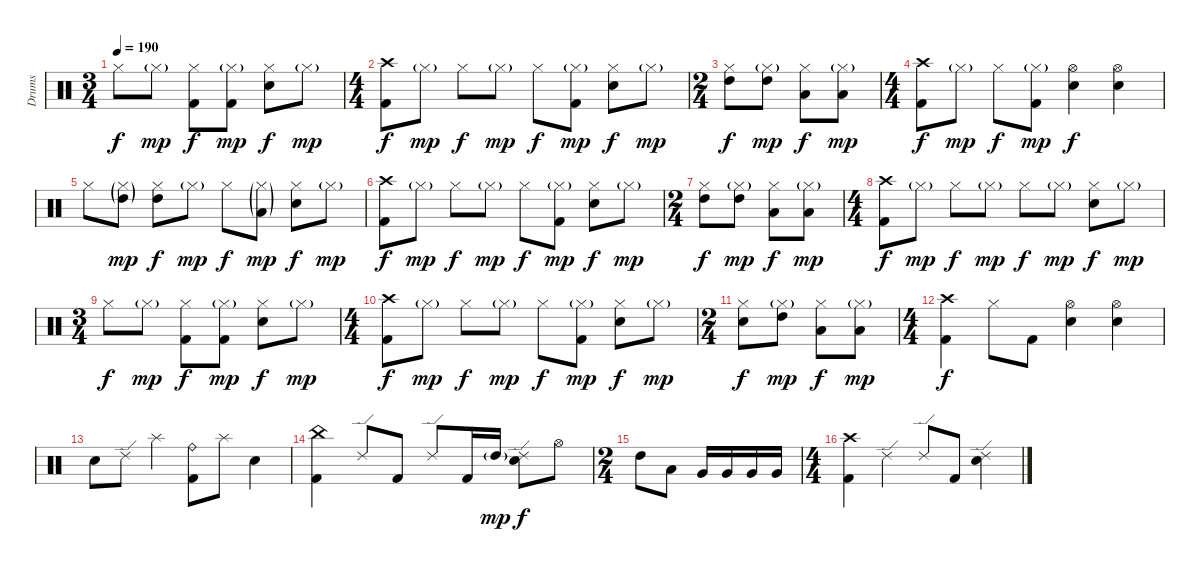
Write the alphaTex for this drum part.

\track ("Drums" "Drums") {instrument percussion}
\staff {score}
\articulation defaults
\ts (3 4)
\tempo 190
\clef neutral
\ks c "Hi-Hat (closed)".8{dy f} "Hi-Hat (closed)"{g}.8{dy mp}
("Hi-Hat (closed)" "Kick (hit) 2").8{dy f} ("Hi-Hat (closed)"{g} "Kick (hit) 2").8{dy mp} ("Hi-Hat (closed)" "Snare (hit) 2").8{dy f} "Hi-Hat (closed)"{g}.8{dy mp} |
\ts (4 4)
("Crash high (hit)" "Kick (hit) 2").8{dy f} "Hi-Hat (closed)"{g}.8{dy mp} "Hi-Hat (closed)".8{dy f} "Hi-Hat (closed)"{g}.8{dy mp} "Hi-Hat (closed)".8{dy f} ("Hi-Hat (closed)"{g} "Kick (hit) 2").8{dy mp} ("Hi-Hat (closed)" "Snare (hit) 2").8{dy f} "Hi-Hat (closed)"{g}.8{dy mp} |
\ts (2 4)
("Hi-Hat (closed)" "High Tom (hit)").8{dy f} ("Hi-Hat (closed)"{g} "High Tom (hit)").8{dy mp} ("Hi-Hat (closed)" "Low Tom (hit)").8{dy f} ("Hi-Hat (closed)"{g} "Low Tom (hit)").8{dy mp} |
\ts (4 4)
("Crash high (hit)" "Kick (hit) 2").8{dy f} "Hi-Hat (closed)"{g}.8{dy mp} "Hi-Hat (closed)".8{dy f} ("Hi-Hat (closed)"{g} "Kick (hit) 2").8{dy mp} ("Hi-Hat (open)" "Snare (hit) 2").4{dy f} ("Hi-Hat (open)" "Snare (hit) 2").4 |
"Hi-Hat (closed)".8 ("Hi-Hat (closed)"{g} "High Tom (hit)"{g}).8{dy mp} ("Hi-Hat (closed)" "High Tom (hit)").8{dy f} "Hi-Hat (closed)"{g}.8{dy mp} "Hi-Hat (closed)".8{dy f} ("Hi-Hat (closed)"{g} "Low Tom (hit)"{g}).8{dy mp} ("Hi-Hat (closed)" "Snare (hit) 2").8{dy f} "Hi-Hat (closed)"{g}.8{dy mp} |
("Crash high (hit)" "Kick (hit) 2").8{dy f} "Hi-Hat (closed)"{g}.8{dy mp} "Hi-Hat (closed)".8{dy f} "Hi-Hat (closed)"{g}.8{dy mp} "Hi-Hat (closed)".8{dy f} ("Hi-Hat (closed)"{g} "Kick (hit) 2").8{dy mp} ("Hi-Hat (closed)" "Snare (hit) 2").8{dy f} "Hi-Hat (closed)"{g}.8{dy mp} |
\ts (2 4)
("Hi-Hat (closed)" "High Tom (hit)").8{dy f} ("Hi-Hat (closed)"{g} "High Tom (hit)").8{dy mp} ("Hi-Hat (closed)" "Low Tom (hit)").8{dy f} ("Hi-Hat (closed)"{g} "Low Tom (hit)").8{dy mp} |
\ts (4 4)
("Crash high (hit)" "Kick (hit) 2").8{dy f} "Hi-Hat (closed)"{g}.8{dy mp} "Hi-Hat (closed)".8{dy f} "Hi-Hat (closed)"{g}.8{dy mp} "Hi-Hat (closed)".8{dy f} "Hi-Hat (closed)"{g}.8{dy mp} ("Hi-Hat (closed)" "Snare (hit) 2").8{dy f} "Hi-Hat (closed)"{g}.8{dy mp} |
\ts (3 4)
"Hi-Hat (closed)".8{dy f} "Hi-Hat (closed)"{g}.8{dy mp} ("Hi-Hat (closed)" "Kick (hit) 2").8{dy f} ("Hi-Hat (closed)"{g} "Kick (hit) 2").8{dy mp} ("Hi-Hat (closed)" "Snare (hit) 2").8{dy f} "Hi-Hat (closed)"{g}.8{dy mp} |
\ts (4 4)
("Crash high (hit)" "Kick (hit) 2").8{dy f} "Hi-Hat (closed)"{g}.8{dy mp} "Hi-Hat (closed)".8{dy f} "Hi-Hat (closed)"{g}.8{dy mp} "Hi-Hat (closed)".8{dy f} ("Hi-Hat (closed)"{g} "Kick (hit) 2").8{dy mp} ("Hi-Hat (closed)" "Snare (hit) 2").8{dy f} "Hi-Hat (closed)"{g}.8{dy mp} |
\ts (2 4)
("Hi-Hat (closed)" "Snare (hit) 2").8{dy f} ("Hi-Hat (closed)"{g} "High Tom (hit)").8{dy mp} ("Hi-Hat (closed)" "Low Tom (hit)").8{dy f} ("Hi-Hat (closed)"{g} "Low Tom (hit)").8{dy mp} |
\ts (4 4)
("Crash high (hit)" "Kick (hit) 2").4{dy f} "Hi-Hat (closed)".8 "Kick (hit) 2".8 ("Hi-Hat (open)" "Snare (hit) 2").4 ("Hi-Hat (open)" "Snare (hit) 2").4 |
"Snare (hit) 2".8 "Ride (edge) 2".8 "Splash (hit)".4 ("Ride (bell)" "Kick (hit) 2").8 "Splash (hit)".8 "Snare (hit) 2".4 |
("China (hit)" "Kick (hit) 2").4 "Ride (edge) 2".8 "Kick (hit) 2".8 "Ride (edge) 2".8 "Kick (hit) 2".16 "High Tom (hit)"{g}.16{dy mp} ("Ride (edge) 2" "Snare (hit) 2").8{dy f} "Hi-Hat (open)".8 |
\ts (2 4)
"High Tom (hit)".8 "Low Tom (hit)".8 "Very Low Tom (hit)".16 "Very Low Tom (hit)".16 "Very Low Tom (hit)".16 "Very Low Tom (hit)".16 |
\ts (4 4)
("Crash high (hit)" "Kick (hit) 2").4 "Ride (edge) 2".4 "Ride (edge) 2".8 "Kick (hit) 2".8 ("Ride (edge) 2" "Snare (hit) 2").4
